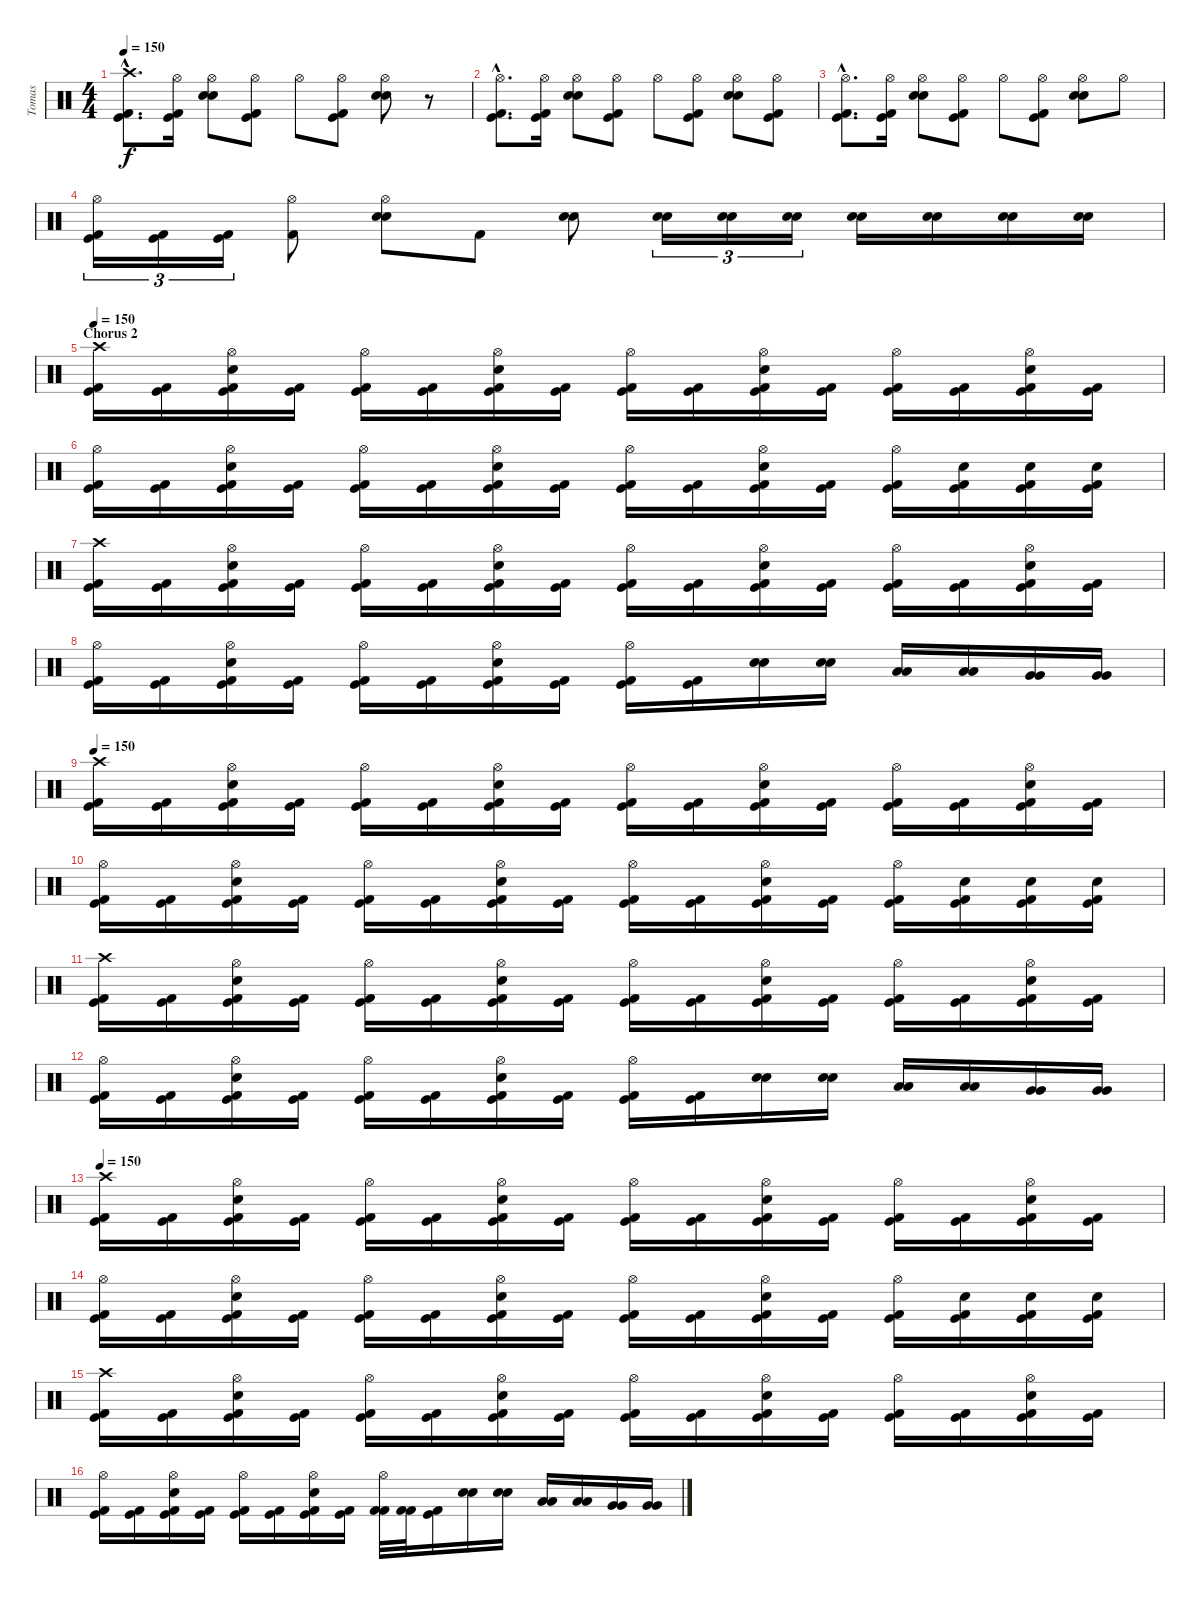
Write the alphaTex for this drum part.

\track ("Tomas" "Tomas") {instrument percussion}
\staff {score}
\articulation defaults
\ts (4 4)
\tempo 150
\clef neutral
\ks c
("Crash high (hit)"{hac} "Kick (hit)"{hac} "Kick (hit) 2"{hac}).8{d dy f} ("Hi-Hat (open)" "Kick (hit)" "Kick (hit) 2").16 ("Hi-Hat (open)" "Electric Snare (hit)" "Electric Snare (hit)").8 ("Hi-Hat (open)" "Kick (hit)" "Kick (hit) 2").8 "Hi-Hat (open)".8 ("Hi-Hat (open)" "Kick (hit)" "Kick (hit) 2").8 ("Hi-Hat (open)" "Electric Snare (hit)" "Electric Snare (hit)").8 r.8 |
("Hi-Hat (open)"{hac} "Kick (hit)"{hac} "Kick (hit) 2"{hac}).8{d} ("Hi-Hat (open)" "Kick (hit)" "Kick (hit) 2").16 ("Hi-Hat (open)" "Electric Snare (hit)" "Electric Snare (hit)").8 ("Hi-Hat (open)" "Kick (hit)" "Kick (hit) 2").8 "Hi-Hat (open)".8 ("Hi-Hat (open)" "Kick (hit)" "Kick (hit) 2").8 ("Hi-Hat (open)" "Electric Snare (hit)" "Electric Snare (hit)").8 ("Hi-Hat (open)" "Kick (hit)" "Kick (hit) 2").8 |
("Hi-Hat (open)"{hac} "Kick (hit)"{hac} "Kick (hit) 2"{hac}).8{d} ("Hi-Hat (open)" "Kick (hit)" "Kick (hit) 2").16 ("Hi-Hat (open)" "Electric Snare (hit)" "Electric Snare (hit)").8 ("Hi-Hat (open)" "Kick (hit)" "Kick (hit) 2").8 "Hi-Hat (open)".8 ("Hi-Hat (open)" "Kick (hit)" "Kick (hit) 2").8 ("Hi-Hat (open)" "Electric Snare (hit)" "Electric Snare (hit)").8 "Hi-Hat (open)".8 |
("Hi-Hat (open)" "Kick (hit)" "Kick (hit) 2").16{tu (3 2)} ("Kick (hit)" "Kick (hit) 2").16{tu (3 2)} ("Kick (hit)" "Kick (hit) 2").16{tu (3 2)} ("Hi-Hat (open)" "Kick (hit) 2").8 ("Hi-Hat (open)" "Electric Snare (hit)" "Electric Snare (hit)").8 "Kick (hit) 2".8 ("Electric Snare (hit)" "Electric Snare (hit)").8 ("Electric Snare (hit)" "Electric Snare (hit)").16{tu (3 2)} ("Electric Snare (hit)" "Electric Snare (hit)").16{tu (3 2)} ("Electric Snare (hit)" "Electric Snare (hit)").16{tu (3 2)} ("Electric Snare (hit)" "Electric Snare (hit)").16 ("Electric Snare (hit)" "Electric Snare (hit)").16 ("Electric Snare (hit)" "Electric Snare (hit)").16 ("Electric Snare (hit)" "Electric Snare (hit)").16 |
\section ("" "Chorus 2")
\tempo 150
("Crash high (hit)" "Kick (hit)" "Kick (hit) 2").16 ("Kick (hit)" "Kick (hit) 2").16 ("Hi-Hat (open)" "Electric Snare (hit)" "Kick (hit)" "Kick (hit) 2").16 ("Kick (hit)" "Kick (hit) 2").16 ("Hi-Hat (open)" "Kick (hit)" "Kick (hit) 2").16 ("Kick (hit)" "Kick (hit) 2").16 ("Hi-Hat (open)" "Electric Snare (hit)" "Kick (hit)" "Kick (hit) 2").16 ("Kick (hit)" "Kick (hit) 2").16 ("Hi-Hat (open)" "Kick (hit)" "Kick (hit) 2").16 ("Kick (hit)" "Kick (hit) 2").16 ("Hi-Hat (open)" "Electric Snare (hit)" "Kick (hit)" "Kick (hit) 2").16 ("Kick (hit)" "Kick (hit) 2").16 ("Hi-Hat (open)" "Kick (hit)" "Kick (hit) 2").16 ("Kick (hit)" "Kick (hit) 2").16 ("Hi-Hat (open)" "Electric Snare (hit)" "Kick (hit)" "Kick (hit) 2").16 ("Kick (hit)" "Kick (hit) 2").16 |
("Hi-Hat (open)" "Kick (hit)" "Kick (hit) 2").16 ("Kick (hit)" "Kick (hit) 2").16 ("Hi-Hat (open)" "Electric Snare (hit)" "Kick (hit)" "Kick (hit) 2").16 ("Kick (hit)" "Kick (hit) 2").16 ("Hi-Hat (open)" "Kick (hit)" "Kick (hit) 2").16 ("Kick (hit)" "Kick (hit) 2").16 ("Hi-Hat (open)" "Electric Snare (hit)" "Kick (hit)" "Kick (hit) 2").16 ("Kick (hit)" "Kick (hit) 2").16 ("Hi-Hat (open)" "Kick (hit)" "Kick (hit) 2").16 ("Kick (hit)" "Kick (hit) 2").16 ("Hi-Hat (open)" "Electric Snare (hit)" "Kick (hit)" "Kick (hit) 2").16 ("Kick (hit)" "Kick (hit) 2").16 ("Hi-Hat (open)" "Kick (hit)" "Kick (hit) 2").16 ("Electric Snare (hit)" "Kick (hit)" "Kick (hit) 2").16 ("Electric Snare (hit)" "Kick (hit)" "Kick (hit) 2").16 ("Electric Snare (hit)" "Kick (hit)" "Kick (hit) 2").16 |
("Crash high (hit)" "Kick (hit)" "Kick (hit) 2").16 ("Kick (hit)" "Kick (hit) 2").16 ("Hi-Hat (open)" "Electric Snare (hit)" "Kick (hit)" "Kick (hit) 2").16 ("Kick (hit)" "Kick (hit) 2").16 ("Hi-Hat (open)" "Kick (hit)" "Kick (hit) 2").16 ("Kick (hit)" "Kick (hit) 2").16 ("Hi-Hat (open)" "Electric Snare (hit)" "Kick (hit)" "Kick (hit) 2").16 ("Kick (hit)" "Kick (hit) 2").16 ("Hi-Hat (open)" "Kick (hit)" "Kick (hit) 2").16 ("Kick (hit)" "Kick (hit) 2").16 ("Hi-Hat (open)" "Electric Snare (hit)" "Kick (hit)" "Kick (hit) 2").16 ("Kick (hit)" "Kick (hit) 2").16 ("Hi-Hat (open)" "Kick (hit)" "Kick (hit) 2").16 ("Kick (hit)" "Kick (hit) 2").16 ("Hi-Hat (open)" "Electric Snare (hit)" "Kick (hit)" "Kick (hit) 2").16 ("Kick (hit)" "Kick (hit) 2").16 |
("Hi-Hat (open)" "Kick (hit)" "Kick (hit) 2").16 ("Kick (hit)" "Kick (hit) 2").16 ("Hi-Hat (open)" "Electric Snare (hit)" "Kick (hit)" "Kick (hit) 2").16 ("Kick (hit)" "Kick (hit) 2").16 ("Hi-Hat (open)" "Kick (hit)" "Kick (hit) 2").16 ("Kick (hit)" "Kick (hit) 2").16 ("Hi-Hat (open)" "Electric Snare (hit)" "Kick (hit)" "Kick (hit) 2").16 ("Kick (hit)" "Kick (hit) 2").16 ("Hi-Hat (open)" "Kick (hit)" "Kick (hit) 2").16 ("Kick (hit)" "Kick (hit) 2").16 ("Electric Snare (hit)" "Electric Snare (hit)").16 ("Electric Snare (hit)" "Electric Snare (hit)").16 ("Low Tom (hit)" "Low Tom (hit)").16 ("Low Tom (hit)" "Low Tom (hit)").16 ("Very Low Tom (hit)" "Very Low Tom (hit)").16 ("Very Low Tom (hit)" "Very Low Tom (hit)").16 |
\tempo 150
("Crash high (hit)" "Kick (hit)" "Kick (hit) 2").16 ("Kick (hit)" "Kick (hit) 2").16 ("Hi-Hat (open)" "Electric Snare (hit)" "Kick (hit)" "Kick (hit) 2").16 ("Kick (hit)" "Kick (hit) 2").16 ("Hi-Hat (open)" "Kick (hit)" "Kick (hit) 2").16 ("Kick (hit)" "Kick (hit) 2").16 ("Hi-Hat (open)" "Electric Snare (hit)" "Kick (hit)" "Kick (hit) 2").16 ("Kick (hit)" "Kick (hit) 2").16 ("Hi-Hat (open)" "Kick (hit)" "Kick (hit) 2").16 ("Kick (hit)" "Kick (hit) 2").16 ("Hi-Hat (open)" "Electric Snare (hit)" "Kick (hit)" "Kick (hit) 2").16 ("Kick (hit)" "Kick (hit) 2").16 ("Hi-Hat (open)" "Kick (hit)" "Kick (hit) 2").16 ("Kick (hit)" "Kick (hit) 2").16 ("Hi-Hat (open)" "Electric Snare (hit)" "Kick (hit)" "Kick (hit) 2").16 ("Kick (hit)" "Kick (hit) 2").16 |
("Hi-Hat (open)" "Kick (hit)" "Kick (hit) 2").16 ("Kick (hit)" "Kick (hit) 2").16 ("Hi-Hat (open)" "Electric Snare (hit)" "Kick (hit)" "Kick (hit) 2").16 ("Kick (hit)" "Kick (hit) 2").16 ("Hi-Hat (open)" "Kick (hit)" "Kick (hit) 2").16 ("Kick (hit)" "Kick (hit) 2").16 ("Hi-Hat (open)" "Electric Snare (hit)" "Kick (hit)" "Kick (hit) 2").16 ("Kick (hit)" "Kick (hit) 2").16 ("Hi-Hat (open)" "Kick (hit)" "Kick (hit) 2").16 ("Kick (hit)" "Kick (hit) 2").16 ("Hi-Hat (open)" "Electric Snare (hit)" "Kick (hit)" "Kick (hit) 2").16 ("Kick (hit)" "Kick (hit) 2").16 ("Hi-Hat (open)" "Kick (hit)" "Kick (hit) 2").16 ("Electric Snare (hit)" "Kick (hit)" "Kick (hit) 2").16 ("Electric Snare (hit)" "Kick (hit)" "Kick (hit) 2").16 ("Electric Snare (hit)" "Kick (hit)" "Kick (hit) 2").16 |
("Crash high (hit)" "Kick (hit)" "Kick (hit) 2").16 ("Kick (hit)" "Kick (hit) 2").16 ("Hi-Hat (open)" "Electric Snare (hit)" "Kick (hit)" "Kick (hit) 2").16 ("Kick (hit)" "Kick (hit) 2").16 ("Hi-Hat (open)" "Kick (hit)" "Kick (hit) 2").16 ("Kick (hit)" "Kick (hit) 2").16 ("Hi-Hat (open)" "Electric Snare (hit)" "Kick (hit)" "Kick (hit) 2").16 ("Kick (hit)" "Kick (hit) 2").16 ("Hi-Hat (open)" "Kick (hit)" "Kick (hit) 2").16 ("Kick (hit)" "Kick (hit) 2").16 ("Hi-Hat (open)" "Electric Snare (hit)" "Kick (hit)" "Kick (hit) 2").16 ("Kick (hit)" "Kick (hit) 2").16 ("Hi-Hat (open)" "Kick (hit)" "Kick (hit) 2").16 ("Kick (hit)" "Kick (hit) 2").16 ("Hi-Hat (open)" "Electric Snare (hit)" "Kick (hit)" "Kick (hit) 2").16 ("Kick (hit)" "Kick (hit) 2").16 |
("Hi-Hat (open)" "Kick (hit)" "Kick (hit) 2").16 ("Kick (hit)" "Kick (hit) 2").16 ("Hi-Hat (open)" "Electric Snare (hit)" "Kick (hit)" "Kick (hit) 2").16 ("Kick (hit)" "Kick (hit) 2").16 ("Hi-Hat (open)" "Kick (hit)" "Kick (hit) 2").16 ("Kick (hit)" "Kick (hit) 2").16 ("Hi-Hat (open)" "Electric Snare (hit)" "Kick (hit)" "Kick (hit) 2").16 ("Kick (hit)" "Kick (hit) 2").16 ("Hi-Hat (open)" "Kick (hit)" "Kick (hit) 2").16 ("Kick (hit)" "Kick (hit) 2").16 ("Electric Snare (hit)" "Electric Snare (hit)").16 ("Electric Snare (hit)" "Electric Snare (hit)").16 ("Low Tom (hit)" "Low Tom (hit)").16 ("Low Tom (hit)" "Low Tom (hit)").16 ("Very Low Tom (hit)" "Very Low Tom (hit)").16 ("Very Low Tom (hit)" "Very Low Tom (hit)").16 |
\tempo 150
("Crash high (hit)" "Kick (hit)" "Kick (hit) 2").16 ("Kick (hit)" "Kick (hit) 2").16 ("Hi-Hat (open)" "Electric Snare (hit)" "Kick (hit)" "Kick (hit) 2").16 ("Kick (hit)" "Kick (hit) 2").16 ("Hi-Hat (open)" "Kick (hit)" "Kick (hit) 2").16 ("Kick (hit)" "Kick (hit) 2").16 ("Hi-Hat (open)" "Electric Snare (hit)" "Kick (hit)" "Kick (hit) 2").16 ("Kick (hit)" "Kick (hit) 2").16 ("Hi-Hat (open)" "Kick (hit)" "Kick (hit) 2").16 ("Kick (hit)" "Kick (hit) 2").16 ("Hi-Hat (open)" "Electric Snare (hit)" "Kick (hit)" "Kick (hit) 2").16 ("Kick (hit)" "Kick (hit) 2").16 ("Hi-Hat (open)" "Kick (hit)" "Kick (hit) 2").16 ("Kick (hit)" "Kick (hit) 2").16 ("Hi-Hat (open)" "Electric Snare (hit)" "Kick (hit)" "Kick (hit) 2").16 ("Kick (hit)" "Kick (hit) 2").16 |
("Hi-Hat (open)" "Kick (hit)" "Kick (hit) 2").16 ("Kick (hit)" "Kick (hit) 2").16 ("Hi-Hat (open)" "Electric Snare (hit)" "Kick (hit)" "Kick (hit) 2").16 ("Kick (hit)" "Kick (hit) 2").16 ("Hi-Hat (open)" "Kick (hit)" "Kick (hit) 2").16 ("Kick (hit)" "Kick (hit) 2").16 ("Hi-Hat (open)" "Electric Snare (hit)" "Kick (hit)" "Kick (hit) 2").16 ("Kick (hit)" "Kick (hit) 2").16 ("Hi-Hat (open)" "Kick (hit)" "Kick (hit) 2").16 ("Kick (hit)" "Kick (hit) 2").16 ("Hi-Hat (open)" "Electric Snare (hit)" "Kick (hit)" "Kick (hit) 2").16 ("Kick (hit)" "Kick (hit) 2").16 ("Hi-Hat (open)" "Kick (hit)" "Kick (hit) 2").16 ("Electric Snare (hit)" "Kick (hit)" "Kick (hit) 2").16 ("Electric Snare (hit)" "Kick (hit)" "Kick (hit) 2").16 ("Electric Snare (hit)" "Kick (hit)" "Kick (hit) 2").16 |
("Crash high (hit)" "Kick (hit)" "Kick (hit) 2").16 ("Kick (hit)" "Kick (hit) 2").16 ("Hi-Hat (open)" "Electric Snare (hit)" "Kick (hit)" "Kick (hit) 2").16 ("Kick (hit)" "Kick (hit) 2").16 ("Hi-Hat (open)" "Kick (hit)" "Kick (hit) 2").16 ("Kick (hit)" "Kick (hit) 2").16 ("Hi-Hat (open)" "Electric Snare (hit)" "Kick (hit)" "Kick (hit) 2").16 ("Kick (hit)" "Kick (hit) 2").16 ("Hi-Hat (open)" "Kick (hit)" "Kick (hit) 2").16 ("Kick (hit)" "Kick (hit) 2").16 ("Hi-Hat (open)" "Electric Snare (hit)" "Kick (hit)" "Kick (hit) 2").16 ("Kick (hit)" "Kick (hit) 2").16 ("Hi-Hat (open)" "Kick (hit)" "Kick (hit) 2").16 ("Kick (hit)" "Kick (hit) 2").16 ("Hi-Hat (open)" "Electric Snare (hit)" "Kick (hit)" "Kick (hit) 2").16 ("Kick (hit)" "Kick (hit) 2").16 |
("Hi-Hat (open)" "Kick (hit)" "Kick (hit) 2").16 ("Kick (hit)" "Kick (hit) 2").16 ("Hi-Hat (open)" "Electric Snare (hit)" "Kick (hit)" "Kick (hit) 2").16 ("Kick (hit)" "Kick (hit) 2").16 ("Hi-Hat (open)" "Kick (hit)" "Kick (hit) 2").16 ("Kick (hit)" "Kick (hit) 2").16 ("Hi-Hat (open)" "Electric Snare (hit)" "Kick (hit)" "Kick (hit) 2").16 ("Kick (hit)" "Kick (hit) 2").16 ("Hi-Hat (open)" "Kick (hit) 2" "Kick (hit) 2").32 ("Kick (hit) 2" "Kick (hit) 2").32 ("Kick (hit)" "Kick (hit) 2").16 ("Electric Snare (hit)" "Electric Snare (hit)").16 ("Electric Snare (hit)" "Electric Snare (hit)").16 ("Low Tom (hit)" "Low Tom (hit)").16 ("Low Tom (hit)" "Low Tom (hit)").16 ("Very Low Tom (hit)" "Very Low Tom (hit)").16 ("Very Low Tom (hit)" "Very Low Tom (hit)").16
